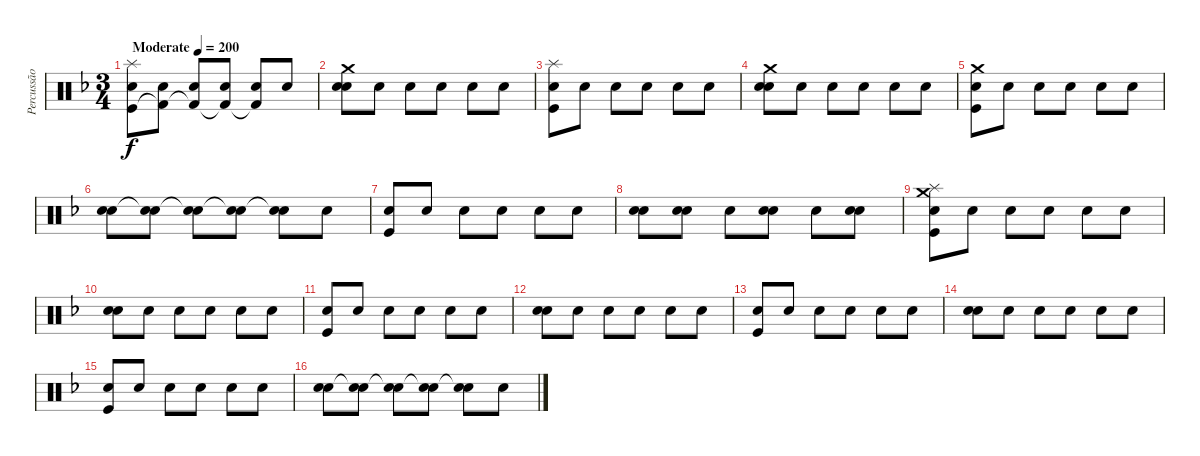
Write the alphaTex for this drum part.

\track ("Percussão" "Percussão") {instrument percussion}
\staff {score}
\articulation defaults
\ts (3 4)
\tempo (200 "Moderate")
\clef neutral
\ks dminor
("Hand Clap (hit)" "Kick (hit)" "Splash (hit)").8{dy f} ("Hand Clap (hit)" "Kick (hit) 2"{t}).8 ("Hand Clap (hit)" "Kick (hit) 2"{t}).8 ("Hand Clap (hit)" "Kick (hit) 2"{t}).8 ("Hand Clap (hit)" "Kick (hit) 2"{t}).8 "Hand Clap (hit)".8 |
("Hand Clap (hit)" "Snare (hit) 2" "Crash medium (hit)").8 "Hand Clap (hit)".8 "Hand Clap (hit)".8 "Hand Clap (hit)".8 "Hand Clap (hit)".8 "Hand Clap (hit)".8 |
("Hand Clap (hit)" "Kick (hit)" "Splash (hit)").8 "Hand Clap (hit)".8 "Hand Clap (hit)".8 "Hand Clap (hit)".8 "Hand Clap (hit)".8 "Hand Clap (hit)".8 |
("Hand Clap (hit)" "Snare (hit) 2" "Crash medium (hit)").8 "Hand Clap (hit)".8 "Hand Clap (hit)".8 "Hand Clap (hit)".8 "Hand Clap (hit)".8 "Hand Clap (hit)".8 |
("Hand Clap (hit)" "Kick (hit)" "Crash medium (hit)").8 "Hand Clap (hit)".8 "Hand Clap (hit)".8 "Hand Clap (hit)".8 "Hand Clap (hit)".8 "Hand Clap (hit)".8 |
("Hand Clap (hit)" "Snare (hit) 2").8 ("Hand Clap (hit)" "Snare (hit) 2"{t}).8 ("Hand Clap (hit)" "Snare (hit) 2"{t}).8 ("Hand Clap (hit)" "Snare (hit) 2"{t}).8 ("Hand Clap (hit)" "Snare (hit) 2"{t}).8 "Hand Clap (hit)".8 |
("Hand Clap (hit)" "Kick (hit)").8 "Hand Clap (hit)".8 "Hand Clap (hit)".8 "Hand Clap (hit)".8 "Hand Clap (hit)".8 "Hand Clap (hit)".8 |
("Hand Clap (hit)" "Snare (hit) 2").8 ("Hand Clap (hit)" "Snare (hit) 2").8 "Hand Clap (hit)".8 ("Hand Clap (hit)" "Snare (hit) 2").8 "Hand Clap (hit)".8 ("Hand Clap (hit)" "Snare (hit) 2").8 |
("Hand Clap (hit)" "Kick (hit)" "Crash medium (hit)" "Splash (hit)").8 "Hand Clap (hit)".8 "Hand Clap (hit)".8 "Hand Clap (hit)".8 "Hand Clap (hit)".8 "Hand Clap (hit)".8 |
("Hand Clap (hit)" "Snare (hit) 2").8 "Hand Clap (hit)".8 "Hand Clap (hit)".8 "Hand Clap (hit)".8 "Hand Clap (hit)".8 "Hand Clap (hit)".8 |
("Hand Clap (hit)" "Kick (hit)").8 "Hand Clap (hit)".8 "Hand Clap (hit)".8 "Hand Clap (hit)".8 "Hand Clap (hit)".8 "Hand Clap (hit)".8 |
("Hand Clap (hit)" "Snare (hit) 2").8 "Hand Clap (hit)".8 "Hand Clap (hit)".8 "Hand Clap (hit)".8 "Hand Clap (hit)".8 "Hand Clap (hit)".8 |
("Hand Clap (hit)" "Kick (hit)").8 "Hand Clap (hit)".8 "Hand Clap (hit)".8 "Hand Clap (hit)".8 "Hand Clap (hit)".8 "Hand Clap (hit)".8 |
("Hand Clap (hit)" "Snare (hit) 2").8 "Hand Clap (hit)".8 "Hand Clap (hit)".8 "Hand Clap (hit)".8 "Hand Clap (hit)".8 "Hand Clap (hit)".8 |
("Hand Clap (hit)" "Kick (hit)").8 "Hand Clap (hit)".8 "Hand Clap (hit)".8 "Hand Clap (hit)".8 "Hand Clap (hit)".8 "Hand Clap (hit)".8 |
("Hand Clap (hit)" "Snare (hit) 2").8 ("Hand Clap (hit)" "Snare (hit) 2"{t}).8 ("Hand Clap (hit)" "Snare (hit) 2"{t}).8 ("Hand Clap (hit)" "Snare (hit) 2"{t}).8 ("Hand Clap (hit)" "Snare (hit) 2"{t}).8 "Hand Clap (hit)".8
